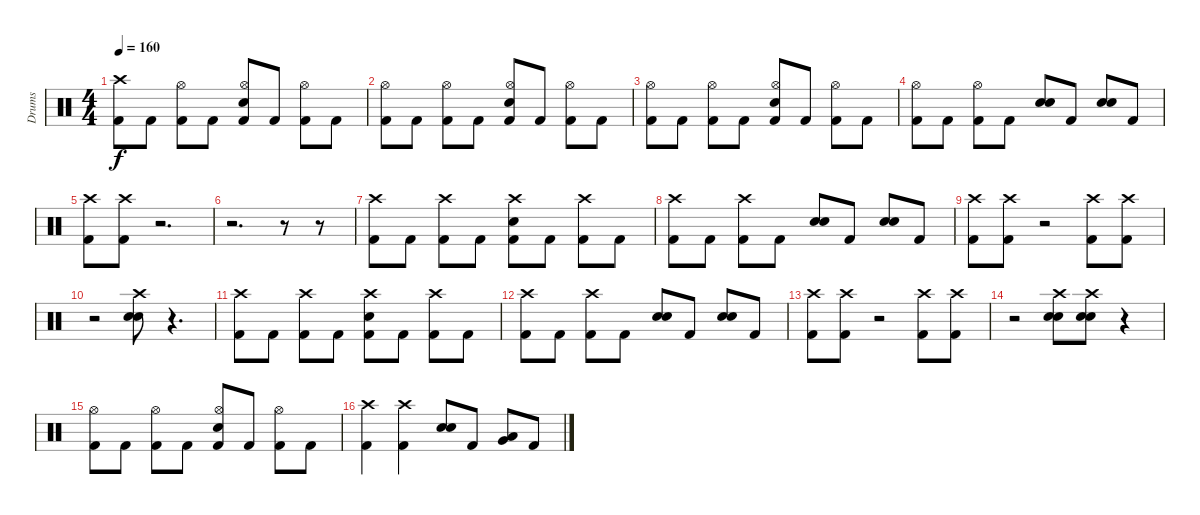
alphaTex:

\track ("Drums" "Drums") {instrument percussion}
\staff {score}
\articulation defaults
\ts (4 4)
\tempo 160
\clef neutral
\ks c
("Crash high (hit)" "Kick (hit) 2").8{dy f} "Kick (hit) 2".8 ("Hi-Hat (open)" "Kick (hit) 2").8 "Kick (hit) 2".8 ("Hi-Hat (open)" "Electric Snare (hit)" "Kick (hit) 2").8 "Kick (hit) 2".8 ("Hi-Hat (open)" "Kick (hit) 2").8 "Kick (hit) 2".8 |
("Hi-Hat (open)" "Kick (hit) 2").8 "Kick (hit) 2".8 ("Hi-Hat (open)" "Kick (hit) 2").8 "Kick (hit) 2".8 ("Hi-Hat (open)" "Electric Snare (hit)" "Kick (hit) 2").8 "Kick (hit) 2".8 ("Hi-Hat (open)" "Kick (hit) 2").8 "Kick (hit) 2".8 |
("Hi-Hat (open)" "Kick (hit) 2").8 "Kick (hit) 2".8 ("Hi-Hat (open)" "Kick (hit) 2").8 "Kick (hit) 2".8 ("Hi-Hat (open)" "Electric Snare (hit)" "Kick (hit) 2").8 "Kick (hit) 2".8 ("Hi-Hat (open)" "Kick (hit) 2").8 "Kick (hit) 2".8 |
("Hi-Hat (open)" "Kick (hit) 2").8 "Kick (hit) 2".8 ("Hi-Hat (open)" "Kick (hit) 2").8 "Kick (hit) 2".8 ("Electric Snare (hit)" "Electric Snare (hit)").8{bd 120} "Kick (hit) 2".8 ("Electric Snare (hit)" "Electric Snare (hit)").8{bd 120} "Kick (hit) 2".8 |
("Crash high (hit)" "Kick (hit) 2").8 ("Crash high (hit)" "Kick (hit) 2").8 r.2{d volume 0} |
r.2{d} r.8 r.8{volume 14} |
("Crash high (hit)" "Kick (hit) 2").8 "Kick (hit) 2".8 ("Crash high (hit)" "Kick (hit) 2").8 "Kick (hit) 2".8 ("Crash high (hit)" "Electric Snare (hit)" "Kick (hit) 2").8 "Kick (hit) 2".8 ("Crash high (hit)" "Kick (hit) 2").8 "Kick (hit) 2".8 |
("Crash high (hit)" "Kick (hit) 2").8 "Kick (hit) 2".8 ("Crash high (hit)" "Kick (hit) 2").8 "Kick (hit) 2".8 ("Electric Snare (hit)" "Electric Snare (hit)").8{bd 120} "Kick (hit) 2".8 ("Electric Snare (hit)" "Electric Snare (hit)").8{bd 120} "Kick (hit) 2".8 |
("Crash high (hit)" "Kick (hit) 2").8 ("Crash high (hit)" "Kick (hit) 2").8 r.2{volume 0} ("Crash high (hit)" "Kick (hit) 2").8{volume 14} ("Crash high (hit)" "Kick (hit) 2").8 |
r.2{volume 0} ("Crash high (hit)" "Electric Snare (hit)" "Electric Snare (hit)").8{bd 120 volume 12} r.4{d volume 0} |
("Crash high (hit)" "Kick (hit) 2").8{volume 14} "Kick (hit) 2".8 ("Crash high (hit)" "Kick (hit) 2").8 "Kick (hit) 2".8 ("Crash high (hit)" "Electric Snare (hit)" "Kick (hit) 2").8 "Kick (hit) 2".8 ("Crash high (hit)" "Kick (hit) 2").8 "Kick (hit) 2".8 |
("Crash high (hit)" "Kick (hit) 2").8 "Kick (hit) 2".8 ("Crash high (hit)" "Kick (hit) 2").8 "Kick (hit) 2".8 ("Electric Snare (hit)" "Electric Snare (hit)").8{bd 120} "Kick (hit) 2".8 ("Electric Snare (hit)" "Electric Snare (hit)").8{bd 120} "Kick (hit) 2".8 |
("Crash high (hit)" "Kick (hit) 2").8 ("Crash high (hit)" "Kick (hit) 2").8 r.2{volume 0} ("Crash high (hit)" "Kick (hit) 2").8{volume 14} ("Crash high (hit)" "Kick (hit) 2").8 |
r.2{volume 0} ("Crash high (hit)" "Electric Snare (hit)" "Electric Snare (hit)").8{bd 120 volume 12} ("Crash high (hit)" "Electric Snare (hit)" "Electric Snare (hit)").8{bd 120} r.4{volume 0} |
("Hi-Hat (open)" "Kick (hit) 2").8{volume 14} "Kick (hit) 2".8 ("Hi-Hat (open)" "Kick (hit) 2").8 "Kick (hit) 2".8 ("Hi-Hat (open)" "Electric Snare (hit)" "Kick (hit) 2").8 "Kick (hit) 2".8 ("Hi-Hat (open)" "Kick (hit) 2").8 "Kick (hit) 2".8 |
("Crash high (hit)" "Kick (hit) 2").4 ("Crash high (hit)" "Kick (hit) 2").4 ("Electric Snare (hit)" "Electric Snare (hit)").8{bd 120} "Kick (hit) 2".8 ("Very Low Tom (hit)" "Low Floor Tom (hit)").8{bd 120} "Kick (hit) 2".8
